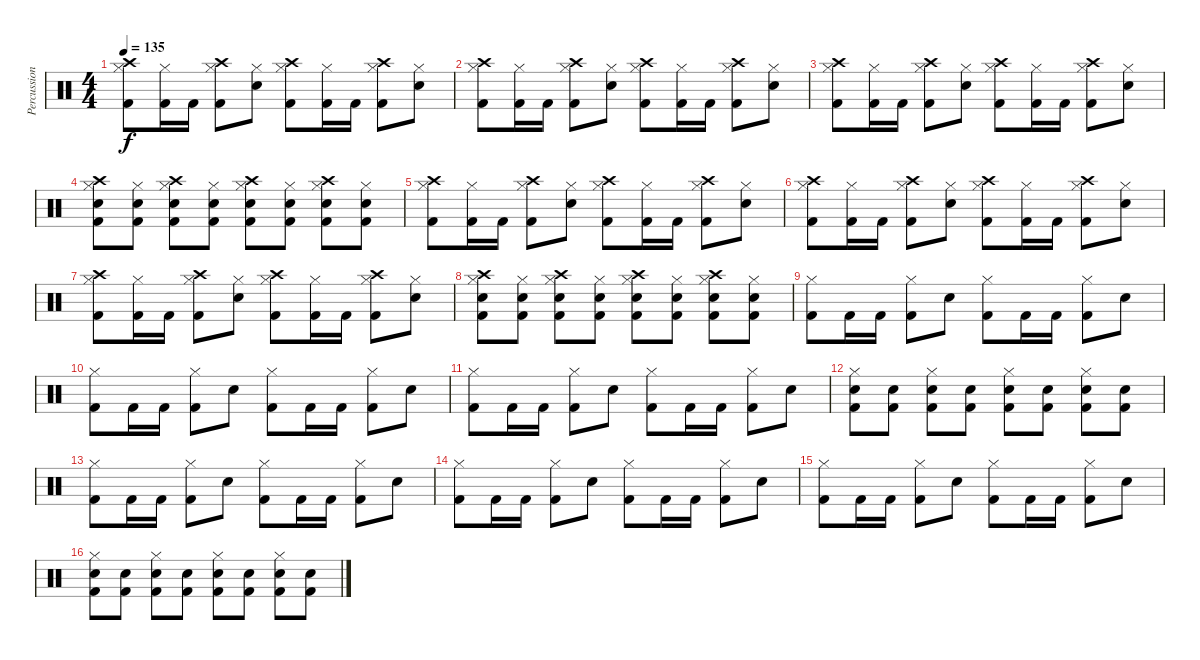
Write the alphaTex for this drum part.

\track ("Percussions" "Percussion") {instrument percussion}
\staff {score}
\articulation defaults
\ts (4 4)
\tempo 135
\clef neutral
\ks c
("Crash high (hit)" "Hi-Hat (closed)" "Kick (hit) 2").8{dy f} ("Hi-Hat (closed)" "Kick (hit) 2").16 "Kick (hit) 2".16 ("Crash high (hit)" "Hi-Hat (closed)" "Kick (hit) 2").8 ("Hi-Hat (closed)" "Snare (hit) 2").8 ("Crash high (hit)" "Hi-Hat (closed)" "Kick (hit) 2").8 ("Hi-Hat (closed)" "Kick (hit) 2").16 "Kick (hit) 2".16 ("Crash high (hit)" "Hi-Hat (closed)" "Kick (hit) 2").8 ("Hi-Hat (closed)" "Snare (hit) 2").8 |
("Crash high (hit)" "Hi-Hat (closed)" "Kick (hit) 2").8 ("Hi-Hat (closed)" "Kick (hit) 2").16 "Kick (hit) 2".16 ("Crash high (hit)" "Hi-Hat (closed)" "Kick (hit) 2").8 ("Hi-Hat (closed)" "Snare (hit) 2").8 ("Crash high (hit)" "Hi-Hat (closed)" "Kick (hit) 2").8 ("Hi-Hat (closed)" "Kick (hit) 2").16 "Kick (hit) 2".16 ("Crash high (hit)" "Hi-Hat (closed)" "Kick (hit) 2").8 ("Hi-Hat (closed)" "Snare (hit) 2").8 |
("Crash high (hit)" "Hi-Hat (closed)" "Kick (hit) 2").8 ("Hi-Hat (closed)" "Kick (hit) 2").16 "Kick (hit) 2".16 ("Crash high (hit)" "Hi-Hat (closed)" "Kick (hit) 2").8 ("Hi-Hat (closed)" "Snare (hit) 2").8 ("Crash high (hit)" "Hi-Hat (closed)" "Kick (hit) 2").8 ("Hi-Hat (closed)" "Kick (hit) 2").16 "Kick (hit) 2".16 ("Crash high (hit)" "Hi-Hat (closed)" "Kick (hit) 2").8 ("Hi-Hat (closed)" "Snare (hit) 2").8 |
("Crash high (hit)" "Hi-Hat (closed)" "Kick (hit) 2" "Snare (hit) 2").8 ("Hi-Hat (closed)" "Kick (hit) 2" "Snare (hit) 2").8 ("Crash high (hit)" "Hi-Hat (closed)" "Kick (hit) 2" "Snare (hit) 2").8 ("Hi-Hat (closed)" "Kick (hit) 2" "Snare (hit) 2").8 ("Crash high (hit)" "Hi-Hat (closed)" "Kick (hit) 2" "Snare (hit) 2").8 ("Hi-Hat (closed)" "Kick (hit) 2" "Snare (hit) 2").8 ("Crash high (hit)" "Hi-Hat (closed)" "Kick (hit) 2" "Snare (hit) 2").8 ("Hi-Hat (closed)" "Kick (hit) 2" "Snare (hit) 2").8 |
("Crash high (hit)" "Hi-Hat (closed)" "Kick (hit) 2").8 ("Hi-Hat (closed)" "Kick (hit) 2").16 "Kick (hit) 2".16 ("Crash high (hit)" "Hi-Hat (closed)" "Kick (hit) 2").8 ("Hi-Hat (closed)" "Snare (hit) 2").8 ("Crash high (hit)" "Hi-Hat (closed)" "Kick (hit) 2").8 ("Hi-Hat (closed)" "Kick (hit) 2").16 "Kick (hit) 2".16 ("Crash high (hit)" "Hi-Hat (closed)" "Kick (hit) 2").8 ("Hi-Hat (closed)" "Snare (hit) 2").8 |
("Crash high (hit)" "Hi-Hat (closed)" "Kick (hit) 2").8 ("Hi-Hat (closed)" "Kick (hit) 2").16 "Kick (hit) 2".16 ("Crash high (hit)" "Hi-Hat (closed)" "Kick (hit) 2").8 ("Hi-Hat (closed)" "Snare (hit) 2").8 ("Crash high (hit)" "Hi-Hat (closed)" "Kick (hit) 2").8 ("Hi-Hat (closed)" "Kick (hit) 2").16 "Kick (hit) 2".16 ("Crash high (hit)" "Hi-Hat (closed)" "Kick (hit) 2").8 ("Hi-Hat (closed)" "Snare (hit) 2").8 |
("Crash high (hit)" "Hi-Hat (closed)" "Kick (hit) 2").8 ("Hi-Hat (closed)" "Kick (hit) 2").16 "Kick (hit) 2".16 ("Crash high (hit)" "Hi-Hat (closed)" "Kick (hit) 2").8 ("Hi-Hat (closed)" "Snare (hit) 2").8 ("Crash high (hit)" "Hi-Hat (closed)" "Kick (hit) 2").8 ("Hi-Hat (closed)" "Kick (hit) 2").16 "Kick (hit) 2".16 ("Crash high (hit)" "Hi-Hat (closed)" "Kick (hit) 2").8 ("Hi-Hat (closed)" "Snare (hit) 2").8 |
("Crash high (hit)" "Hi-Hat (closed)" "Kick (hit) 2" "Snare (hit) 2").8 ("Hi-Hat (closed)" "Kick (hit) 2" "Snare (hit) 2").8 ("Crash high (hit)" "Hi-Hat (closed)" "Kick (hit) 2" "Snare (hit) 2").8 ("Hi-Hat (closed)" "Kick (hit) 2" "Snare (hit) 2").8 ("Crash high (hit)" "Hi-Hat (closed)" "Kick (hit) 2" "Snare (hit) 2").8 ("Hi-Hat (closed)" "Kick (hit) 2" "Snare (hit) 2").8 ("Crash high (hit)" "Hi-Hat (closed)" "Kick (hit) 2" "Snare (hit) 2").8 ("Hi-Hat (closed)" "Kick (hit) 2" "Snare (hit) 2").8 |
("Hi-Hat (closed)" "Kick (hit) 2").8 "Kick (hit) 2".16 "Kick (hit) 2".16 ("Hi-Hat (closed)" "Kick (hit) 2").8 "Snare (hit) 2".8 ("Hi-Hat (closed)" "Kick (hit) 2").8 "Kick (hit) 2".16 "Kick (hit) 2".16 ("Hi-Hat (closed)" "Kick (hit) 2").8 "Snare (hit) 2".8 |
("Hi-Hat (closed)" "Kick (hit) 2").8 "Kick (hit) 2".16 "Kick (hit) 2".16 ("Hi-Hat (closed)" "Kick (hit) 2").8 "Snare (hit) 2".8 ("Hi-Hat (closed)" "Kick (hit) 2").8 "Kick (hit) 2".16 "Kick (hit) 2".16 ("Hi-Hat (closed)" "Kick (hit) 2").8 "Snare (hit) 2".8 |
("Hi-Hat (closed)" "Kick (hit) 2").8 "Kick (hit) 2".16 "Kick (hit) 2".16 ("Hi-Hat (closed)" "Kick (hit) 2").8 "Snare (hit) 2".8 ("Hi-Hat (closed)" "Kick (hit) 2").8 "Kick (hit) 2".16 "Kick (hit) 2".16 ("Hi-Hat (closed)" "Kick (hit) 2").8 "Snare (hit) 2".8 |
("Hi-Hat (closed)" "Kick (hit) 2" "Snare (hit) 2").8 ("Kick (hit) 2" "Snare (hit) 2").8 ("Hi-Hat (closed)" "Kick (hit) 2" "Snare (hit) 2").8 ("Kick (hit) 2" "Snare (hit) 2").8 ("Hi-Hat (closed)" "Kick (hit) 2" "Snare (hit) 2").8 ("Kick (hit) 2" "Snare (hit) 2").8 ("Hi-Hat (closed)" "Kick (hit) 2" "Snare (hit) 2").8 ("Kick (hit) 2" "Snare (hit) 2").8 |
("Hi-Hat (closed)" "Kick (hit) 2").8 "Kick (hit) 2".16 "Kick (hit) 2".16 ("Hi-Hat (closed)" "Kick (hit) 2").8 "Snare (hit) 2".8 ("Hi-Hat (closed)" "Kick (hit) 2").8 "Kick (hit) 2".16 "Kick (hit) 2".16 ("Hi-Hat (closed)" "Kick (hit) 2").8 "Snare (hit) 2".8 |
("Hi-Hat (closed)" "Kick (hit) 2").8 "Kick (hit) 2".16 "Kick (hit) 2".16 ("Hi-Hat (closed)" "Kick (hit) 2").8 "Snare (hit) 2".8 ("Hi-Hat (closed)" "Kick (hit) 2").8 "Kick (hit) 2".16 "Kick (hit) 2".16 ("Hi-Hat (closed)" "Kick (hit) 2").8 "Snare (hit) 2".8 |
("Hi-Hat (closed)" "Kick (hit) 2").8 "Kick (hit) 2".16 "Kick (hit) 2".16 ("Hi-Hat (closed)" "Kick (hit) 2").8 "Snare (hit) 2".8 ("Hi-Hat (closed)" "Kick (hit) 2").8 "Kick (hit) 2".16 "Kick (hit) 2".16 ("Hi-Hat (closed)" "Kick (hit) 2").8 "Snare (hit) 2".8 |
("Hi-Hat (closed)" "Kick (hit) 2" "Snare (hit) 2").8 ("Kick (hit) 2" "Snare (hit) 2").8 ("Hi-Hat (closed)" "Kick (hit) 2" "Snare (hit) 2").8 ("Kick (hit) 2" "Snare (hit) 2").8 ("Hi-Hat (closed)" "Kick (hit) 2" "Snare (hit) 2").8 ("Kick (hit) 2" "Snare (hit) 2").8 ("Hi-Hat (closed)" "Kick (hit) 2" "Snare (hit) 2").8 ("Kick (hit) 2" "Snare (hit) 2").8
